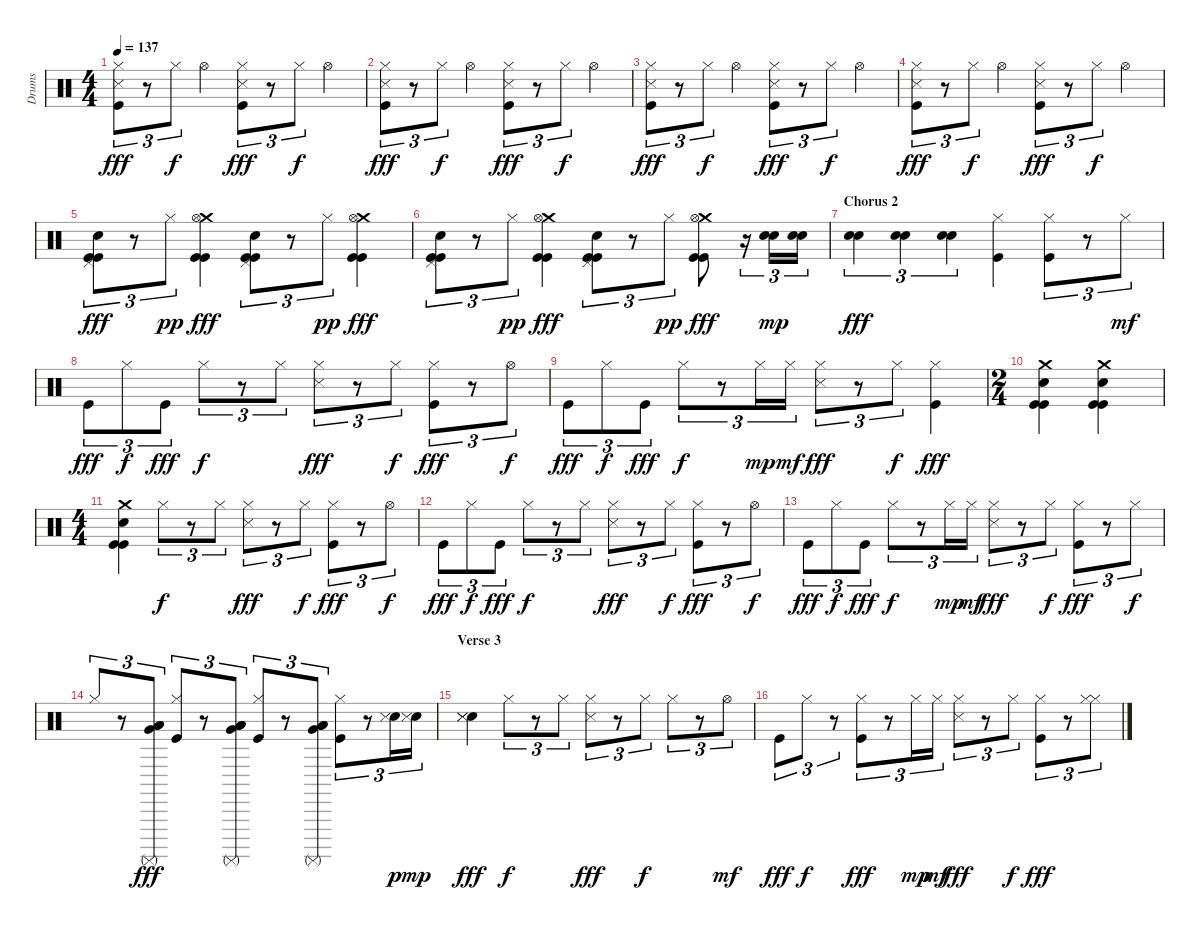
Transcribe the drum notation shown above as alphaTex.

\track ("Drums" "Drums") {instrument percussion}
\staff {score}
\articulation defaults
\ts (4 4)
\tempo 137
\clef neutral
\ks c
("Hi-Hat (closed)" "Snare (side stick) 3" "Kick (hit)").8{tu (3 2) dy fff} r.8{tu (3 2)} "Hi-Hat (closed)".8{tu (3 2) dy f} "Hi-Hat (open)".4 ("Hi-Hat (closed)" "Snare (side stick) 3" "Kick (hit)").8{tu (3 2) dy fff} r.8{tu (3 2)} "Hi-Hat (closed)".8{tu (3 2) dy f} "Hi-Hat (open)".4 |
("Hi-Hat (closed)" "Snare (side stick) 3" "Kick (hit)").8{tu (3 2) dy fff} r.8{tu (3 2)} "Hi-Hat (closed)".8{tu (3 2) dy f} "Hi-Hat (open)".4 ("Hi-Hat (closed)" "Snare (side stick) 3" "Kick (hit)").8{tu (3 2) dy fff} r.8{tu (3 2)} "Hi-Hat (closed)".8{tu (3 2) dy f} "Hi-Hat (open)".4 |
("Hi-Hat (closed)" "Snare (side stick) 3" "Kick (hit)").8{tu (3 2) dy fff} r.8{tu (3 2)} "Hi-Hat (closed)".8{tu (3 2) dy f} "Hi-Hat (open)".4 ("Hi-Hat (closed)" "Snare (side stick) 3" "Kick (hit)").8{tu (3 2) dy fff} r.8{tu (3 2)} "Hi-Hat (closed)".8{tu (3 2) dy f} "Hi-Hat (open)".4 |
("Hi-Hat (closed)" "Snare (side stick) 3" "Kick (hit)").8{tu (3 2) dy fff} r.8{tu (3 2)} "Hi-Hat (closed)".8{tu (3 2) dy f} "Hi-Hat (open)".4 ("Hi-Hat (closed)" "Snare (side stick) 3" "Kick (hit)").8{tu (3 2) dy fff} r.8{tu (3 2)} "Hi-Hat (closed)".8{tu (3 2) dy f} "Hi-Hat (open)".4 |
("Pedal Hi-Hat (hit)" "Electric Snare (hit)" "Kick (hit)" "Kick (hit)").8{tu (3 2) dy fff volume 16} r.8{tu (3 2)} "Hi-Hat (closed)".8{tu (3 2) dy pp} ("Crash medium (hit)" "Hi-Hat (open)" "Kick (hit)" "Kick (hit)").4{dy fff} ("Pedal Hi-Hat (hit)" "Electric Snare (hit)" "Kick (hit)" "Kick (hit)").8{tu (3 2)} r.8{tu (3 2)} "Hi-Hat (closed)".8{tu (3 2) dy pp} ("Crash medium (hit)" "Hi-Hat (open)" "Kick (hit)" "Kick (hit)").4{dy fff} |
("Pedal Hi-Hat (hit)" "Electric Snare (hit)" "Kick (hit)" "Kick (hit)").8{tu (3 2)} r.8{tu (3 2)} "Hi-Hat (closed)".8{tu (3 2) dy pp} ("Crash medium (hit)" "Hi-Hat (open)" "Kick (hit)" "Kick (hit)").4{dy fff} ("Pedal Hi-Hat (hit)" "Electric Snare (hit)" "Kick (hit)" "Kick (hit)").8{tu (3 2)} r.8{tu (3 2)} "Hi-Hat (closed)".8{tu (3 2) dy pp} ("Crash medium (hit)" "Hi-Hat (open)" "Kick (hit)" "Kick (hit)").8{dy fff} r.16{tu (3 2)} ("Snare (hit) 2" "Electric Snare (hit)").16{tu (3 2) dy mp} ("Snare (hit) 2" "Electric Snare (hit)").16{tu (3 2)} |
\section ("" "Chorus 2")
("Snare (hit) 2" "Electric Snare (hit)").4{tu (3 2) dy fff} ("Snare (hit) 2" "Electric Snare (hit)").4{tu (3 2)} ("Snare (hit) 2" "Electric Snare (hit)").4{tu (3 2)} ("Hi-Hat (closed)" "Kick (hit)").4{volume 10} ("Hi-Hat (closed)" "Kick (hit)").8{tu (3 2)} r.8{tu (3 2)} "Hi-Hat (closed)".8{tu (3 2) dy mf} |
"Kick (hit)".8{tu (3 2) dy fff} "Hi-Hat (closed)".8{tu (3 2) dy f} "Kick (hit)".8{tu (3 2) dy fff} "Hi-Hat (closed)".8{tu (3 2) dy f} r.8{tu (3 2)} "Hi-Hat (closed)".8{tu (3 2)} ("Hi-Hat (closed)" "Snare (side stick) 3").8{tu (3 2) dy fff} r.8{tu (3 2)} "Hi-Hat (closed)".8{tu (3 2) dy f} ("Hi-Hat (closed)" "Kick (hit)").8{tu (3 2) dy fff} r.8{tu (3 2)} "Hi-Hat (open)".8{tu (3 2) dy f} |
"Kick (hit)".8{tu (3 2) dy fff} "Hi-Hat (closed)".8{tu (3 2) dy f} "Kick (hit)".8{tu (3 2) dy fff} "Hi-Hat (closed)".8{tu (3 2) dy f} r.8{tu (3 2)} "Hi-Hat (closed)".16{tu (3 2) dy mp} "Hi-Hat (closed)".16{tu (3 2) dy mf} ("Hi-Hat (closed)" "Snare (side stick) 3").8{tu (3 2) dy fff} r.8{tu (3 2)} "Hi-Hat (closed)".8{tu (3 2) dy f} ("Hi-Hat (closed)" "Kick (hit)").4{dy fff} |
\ts (2 4)
("Crash medium (hit)" "Electric Snare (hit)" "Kick (hit)" "Kick (hit)").4{volume 16} ("Crash medium (hit)" "Electric Snare (hit)" "Kick (hit)" "Kick (hit)").4 |
\ts (4 4)
("Crash medium (hit)" "Electric Snare (hit)" "Kick (hit)" "Kick (hit)").4 "Hi-Hat (closed)".8{tu (3 2) dy f volume 10} r.8{tu (3 2)} "Hi-Hat (closed)".8{tu (3 2)} ("Hi-Hat (closed)" "Snare (side stick) 3").8{tu (3 2) dy fff} r.8{tu (3 2)} "Hi-Hat (closed)".8{tu (3 2) dy f} ("Hi-Hat (closed)" "Kick (hit)").8{tu (3 2) dy fff} r.8{tu (3 2)} "Hi-Hat (open)".8{tu (3 2) dy f} |
"Kick (hit)".8{tu (3 2) dy fff} "Hi-Hat (closed)".8{tu (3 2) dy f} "Kick (hit)".8{tu (3 2) dy fff} "Hi-Hat (closed)".8{tu (3 2) dy f} r.8{tu (3 2)} "Hi-Hat (closed)".8{tu (3 2)} ("Hi-Hat (closed)" "Snare (side stick) 3").8{tu (3 2) dy fff} r.8{tu (3 2)} "Hi-Hat (closed)".8{tu (3 2) dy f} ("Hi-Hat (closed)" "Kick (hit)").8{tu (3 2) dy fff} r.8{tu (3 2)} "Hi-Hat (open)".8{tu (3 2) dy f} |
"Kick (hit)".8{tu (3 2) dy fff} "Hi-Hat (closed)".8{tu (3 2) dy f} "Kick (hit)".8{tu (3 2) dy fff} "Hi-Hat (closed)".8{tu (3 2) dy f} r.8{tu (3 2)} "Hi-Hat (closed)".16{tu (3 2) dy mp} "Hi-Hat (closed)".16{tu (3 2) dy mf} ("Hi-Hat (closed)" "Snare (side stick) 3").8{tu (3 2) dy fff} r.8{tu (3 2)} "Hi-Hat (closed)".8{tu (3 2) dy f} ("Hi-Hat (closed)" "Kick (hit)").8{tu (3 2) dy fff} r.8{tu (3 2)} "Hi-Hat (closed)".8{tu (3 2) dy f} |
"Hi-Hat (closed)".8{tu (3 2)} r.8{tu (3 2)} ("Surdo (mute)" "Low Tom (hit)" "Very Low Tom (hit)" "Low Floor Tom (hit)").8{tu (3 2) dy fff volume 16 balance 0} ("Hi-Hat (closed)" "Kick (hit)").8{tu (3 2) volume 10 balance 8} r.8{tu (3 2)} ("Surdo (mute)" "Low Tom (hit)" "Very Low Tom (hit)" "Low Floor Tom (hit)").8{tu (3 2) volume 16 balance 0} ("Hi-Hat (closed)" "Kick (hit)").8{tu (3 2) volume 10 balance 8} r.8{tu (3 2)} ("Surdo (mute)" "Low Tom (hit)" "Very Low Tom (hit)" "Low Floor Tom (hit)").8{tu (3 2) volume 16 balance 0} ("Hi-Hat (closed)" "Kick (hit)").8{tu (3 2) volume 10 balance 8} r.8{tu (3 2)} ("Electric Snare (hit)" "Snare (side stick) 3").16{tu (3 2) dy p volume 16} ("Electric Snare (hit)" "Snare (side stick) 3").16{tu (3 2) dy mp} |
\section ("" "Verse 3")
("Electric Snare (hit)" "Snare (side stick) 3" "Metronome (hit)").4{dy fff} "Hi-Hat (closed)".8{tu (3 2) dy f volume 10} r.8{tu (3 2)} "Hi-Hat (closed)".8{tu (3 2)} ("Hi-Hat (closed)" "Snare (side stick) 3").8{tu (3 2) dy fff} r.8{tu (3 2)} "Hi-Hat (closed)".8{tu (3 2) dy f} "Hi-Hat (closed)".8{tu (3 2)} r.8{tu (3 2)} "Hi-Hat (open)".8{tu (3 2) dy mf} |
"Kick (hit)".8{tu (3 2) dy fff balance 8} "Hi-Hat (closed)".8{tu (3 2) dy f} r.8{tu (3 2)} ("Hi-Hat (closed)" "Kick (hit)").8{tu (3 2) dy fff} r.8{tu (3 2)} "Hi-Hat (closed)".16{tu (3 2) dy mp} "Hi-Hat (closed)".16{tu (3 2) dy mf} ("Hi-Hat (closed)" "Snare (side stick) 3").8{tu (3 2) dy fff} r.8{tu (3 2)} "Hi-Hat (closed)".8{tu (3 2) dy f} ("Hi-Hat (closed)" "Kick (hit)").8{tu (3 2) dy fff} r.8{tu (3 2)} ("Hi-Hat (closed)" "Hi-Hat (closed)").8{tu (3 2)}
